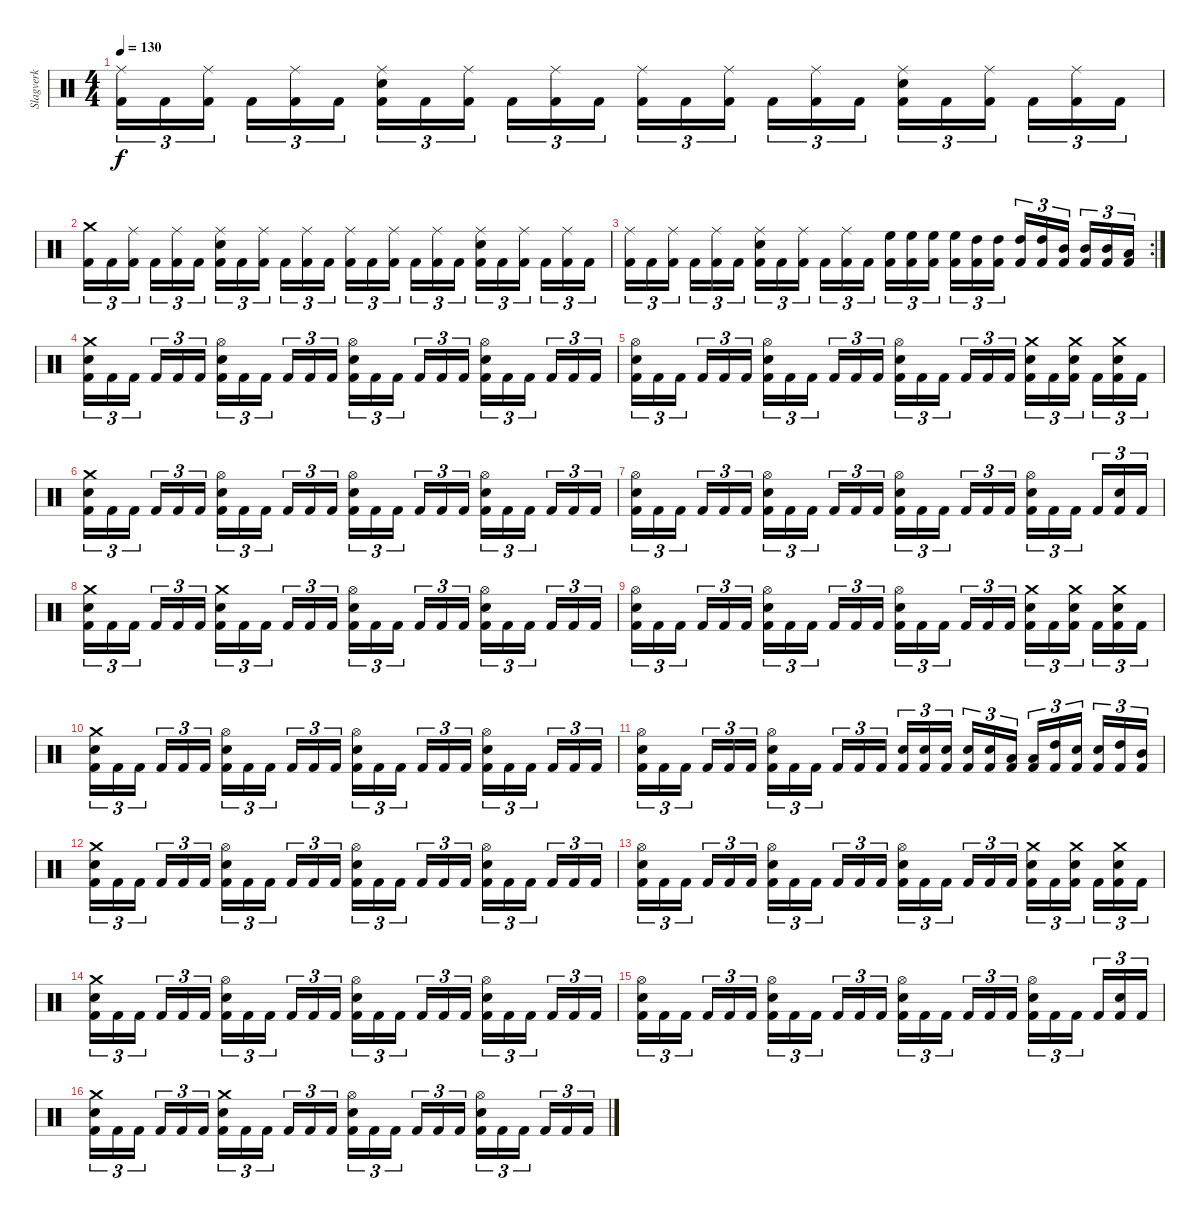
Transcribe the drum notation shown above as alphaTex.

\track ("Slagverk" "Slagverk") {instrument percussion}
\staff {score}
\articulation defaults
\ts (4 4)
\tempo 130
\clef neutral
\ks c
("Kick (hit) 2" "Ride (middle)").16{tu (3 2) dy f} "Kick (hit) 2".16{tu (3 2)} ("Kick (hit) 2" "Ride (middle)").16{tu (3 2)} "Kick (hit) 2".16{tu (3 2)} ("Kick (hit) 2" "Ride (middle)").16{tu (3 2)} "Kick (hit) 2".16{tu (3 2)} ("Kick (hit) 2" "Electric Snare (hit)" "Ride (middle)").16{tu (3 2)} "Kick (hit) 2".16{tu (3 2)} ("Kick (hit) 2" "Ride (middle)").16{tu (3 2)} "Kick (hit) 2".16{tu (3 2)} ("Kick (hit) 2" "Ride (middle)").16{tu (3 2)} "Kick (hit) 2".16{tu (3 2)} ("Kick (hit) 2" "Ride (middle)").16{tu (3 2)} "Kick (hit) 2".16{tu (3 2)} ("Kick (hit) 2" "Ride (middle)").16{tu (3 2)} "Kick (hit) 2".16{tu (3 2)} ("Kick (hit) 2" "Ride (middle)").16{tu (3 2)} "Kick (hit) 2".16{tu (3 2)} ("Kick (hit) 2" "Electric Snare (hit)" "Ride (middle)").16{tu (3 2)} "Kick (hit) 2".16{tu (3 2)} ("Kick (hit) 2" "Ride (middle)").16{tu (3 2)} "Kick (hit) 2".16{tu (3 2)} ("Kick (hit) 2" "Ride (middle)").16{tu (3 2)} "Kick (hit) 2".16{tu (3 2)} |
("Kick (hit) 2" "Crash medium (hit)").16{tu (3 2)} "Kick (hit) 2".16{tu (3 2)} ("Kick (hit) 2" "Ride (middle)").16{tu (3 2)} "Kick (hit) 2".16{tu (3 2)} ("Kick (hit) 2" "Ride (middle)").16{tu (3 2)} "Kick (hit) 2".16{tu (3 2)} ("Kick (hit) 2" "Electric Snare (hit)" "Ride (middle)").16{tu (3 2)} "Kick (hit) 2".16{tu (3 2)} ("Kick (hit) 2" "Ride (middle)").16{tu (3 2)} "Kick (hit) 2".16{tu (3 2)} ("Kick (hit) 2" "Ride (middle)").16{tu (3 2)} "Kick (hit) 2".16{tu (3 2)} ("Kick (hit) 2" "Ride (middle)").16{tu (3 2)} "Kick (hit) 2".16{tu (3 2)} ("Kick (hit) 2" "Ride (middle)").16{tu (3 2)} "Kick (hit) 2".16{tu (3 2)} ("Kick (hit) 2" "Ride (middle)").16{tu (3 2)} "Kick (hit) 2".16{tu (3 2)} ("Kick (hit) 2" "Electric Snare (hit)" "Ride (middle)").16{tu (3 2)} "Kick (hit) 2".16{tu (3 2)} ("Kick (hit) 2" "Ride (middle)").16{tu (3 2)} "Kick (hit) 2".16{tu (3 2)} ("Kick (hit) 2" "Ride (middle)").16{tu (3 2)} "Kick (hit) 2".16{tu (3 2)} |
\rc 2
("Kick (hit) 2" "Ride (middle)").16{tu (3 2)} "Kick (hit) 2".16{tu (3 2)} ("Kick (hit) 2" "Ride (middle)").16{tu (3 2)} "Kick (hit) 2".16{tu (3 2)} ("Kick (hit) 2" "Ride (middle)").16{tu (3 2)} "Kick (hit) 2".16{tu (3 2)} ("Kick (hit) 2" "Electric Snare (hit)" "Ride (middle)").16{tu (3 2)} "Kick (hit) 2".16{tu (3 2)} ("Kick (hit) 2" "Ride (middle)").16{tu (3 2)} "Kick (hit) 2".16{tu (3 2)} ("Kick (hit) 2" "Ride (middle)").16{tu (3 2)} "Kick (hit) 2".16{tu (3 2)} ("Kick (hit) 2" "High Floor Tom (hit)").16{tu (3 2)} ("Kick (hit) 2" "High Floor Tom (hit)").16{tu (3 2)} ("Kick (hit) 2" "High Floor Tom (hit)").16{tu (3 2)} ("Kick (hit) 2" "High Floor Tom (hit)").16{tu (3 2)} ("Kick (hit) 2" "High Tom (hit)").16{tu (3 2)} ("Kick (hit) 2" "High Tom (hit)").16{tu (3 2)} ("Kick (hit) 2" "High Tom (hit)").16{tu (3 2)} ("Kick (hit) 2" "High Tom (hit)").16{tu (3 2)} ("Kick (hit) 2" "Mid Tom (hit)").16{tu (3 2)} ("Kick (hit) 2" "Mid Tom (hit)").16{tu (3 2)} ("Kick (hit) 2" "Mid Tom (hit)").16{tu (3 2)} ("Kick (hit) 2" "Low Tom (hit)").16{tu (3 2)} |
("Kick (hit) 2" "Electric Snare (hit)" "Crash medium (hit)").16{tu (3 2)} "Kick (hit) 2".16{tu (3 2)} "Kick (hit) 2".16{tu (3 2)} "Kick (hit) 2".16{tu (3 2)} "Kick (hit) 2".16{tu (3 2)} "Kick (hit) 2".16{tu (3 2)} ("Kick (hit) 2" "Electric Snare (hit)" "Hi-Hat (open)").16{tu (3 2)} "Kick (hit) 2".16{tu (3 2)} "Kick (hit) 2".16{tu (3 2)} "Kick (hit) 2".16{tu (3 2)} "Kick (hit) 2".16{tu (3 2)} "Kick (hit) 2".16{tu (3 2)} ("Kick (hit) 2" "Electric Snare (hit)" "Hi-Hat (open)").16{tu (3 2)} "Kick (hit) 2".16{tu (3 2)} "Kick (hit) 2".16{tu (3 2)} "Kick (hit) 2".16{tu (3 2)} "Kick (hit) 2".16{tu (3 2)} "Kick (hit) 2".16{tu (3 2)} ("Kick (hit) 2" "Electric Snare (hit)" "Hi-Hat (open)").16{tu (3 2)} "Kick (hit) 2".16{tu (3 2)} "Kick (hit) 2".16{tu (3 2)} "Kick (hit) 2".16{tu (3 2)} "Kick (hit) 2".16{tu (3 2)} "Kick (hit) 2".16{tu (3 2)} |
("Kick (hit) 2" "Electric Snare (hit)" "Hi-Hat (open)").16{tu (3 2)} "Kick (hit) 2".16{tu (3 2)} "Kick (hit) 2".16{tu (3 2)} "Kick (hit) 2".16{tu (3 2)} "Kick (hit) 2".16{tu (3 2)} "Kick (hit) 2".16{tu (3 2)} ("Kick (hit) 2" "Electric Snare (hit)" "Hi-Hat (open)").16{tu (3 2)} "Kick (hit) 2".16{tu (3 2)} "Kick (hit) 2".16{tu (3 2)} "Kick (hit) 2".16{tu (3 2)} "Kick (hit) 2".16{tu (3 2)} "Kick (hit) 2".16{tu (3 2)} ("Kick (hit) 2" "Electric Snare (hit)" "Hi-Hat (open)").16{tu (3 2)} "Kick (hit) 2".16{tu (3 2)} "Kick (hit) 2".16{tu (3 2)} "Kick (hit) 2".16{tu (3 2)} "Kick (hit) 2".16{tu (3 2)} "Kick (hit) 2".16{tu (3 2)} ("Kick (hit) 2" "Electric Snare (hit)" "Crash medium (hit)").16{tu (3 2)} "Kick (hit) 2".16{tu (3 2)} ("Kick (hit) 2" "Electric Snare (hit)" "Crash medium (hit)").16{tu (3 2)} "Kick (hit) 2".16{tu (3 2)} ("Kick (hit) 2" "Electric Snare (hit)" "Crash medium (hit)").16{tu (3 2)} "Kick (hit) 2".16{tu (3 2)} |
("Kick (hit) 2" "Electric Snare (hit)" "Crash medium (hit)").16{tu (3 2)} "Kick (hit) 2".16{tu (3 2)} "Kick (hit) 2".16{tu (3 2)} "Kick (hit) 2".16{tu (3 2)} "Kick (hit) 2".16{tu (3 2)} "Kick (hit) 2".16{tu (3 2)} ("Kick (hit) 2" "Electric Snare (hit)" "Hi-Hat (open)").16{tu (3 2)} "Kick (hit) 2".16{tu (3 2)} "Kick (hit) 2".16{tu (3 2)} "Kick (hit) 2".16{tu (3 2)} "Kick (hit) 2".16{tu (3 2)} "Kick (hit) 2".16{tu (3 2)} ("Kick (hit) 2" "Electric Snare (hit)" "Hi-Hat (open)").16{tu (3 2)} "Kick (hit) 2".16{tu (3 2)} "Kick (hit) 2".16{tu (3 2)} "Kick (hit) 2".16{tu (3 2)} "Kick (hit) 2".16{tu (3 2)} "Kick (hit) 2".16{tu (3 2)} ("Kick (hit) 2" "Electric Snare (hit)" "Hi-Hat (open)").16{tu (3 2)} "Kick (hit) 2".16{tu (3 2)} "Kick (hit) 2".16{tu (3 2)} "Kick (hit) 2".16{tu (3 2)} "Kick (hit) 2".16{tu (3 2)} "Kick (hit) 2".16{tu (3 2)} |
("Kick (hit) 2" "Electric Snare (hit)" "Hi-Hat (open)").16{tu (3 2)} "Kick (hit) 2".16{tu (3 2)} "Kick (hit) 2".16{tu (3 2)} "Kick (hit) 2".16{tu (3 2)} "Kick (hit) 2".16{tu (3 2)} "Kick (hit) 2".16{tu (3 2)} ("Kick (hit) 2" "Electric Snare (hit)" "Hi-Hat (open)").16{tu (3 2)} "Kick (hit) 2".16{tu (3 2)} "Kick (hit) 2".16{tu (3 2)} "Kick (hit) 2".16{tu (3 2)} "Kick (hit) 2".16{tu (3 2)} "Kick (hit) 2".16{tu (3 2)} ("Kick (hit) 2" "Electric Snare (hit)" "Hi-Hat (open)").16{tu (3 2)} "Kick (hit) 2".16{tu (3 2)} "Kick (hit) 2".16{tu (3 2)} "Kick (hit) 2".16{tu (3 2)} "Kick (hit) 2".16{tu (3 2)} "Kick (hit) 2".16{tu (3 2)} ("Kick (hit) 2" "Electric Snare (hit)" "Hi-Hat (open)").16{tu (3 2)} "Kick (hit) 2".16{tu (3 2)} "Kick (hit) 2".16{tu (3 2)} "Kick (hit) 2".16{tu (3 2)} ("Kick (hit) 2" "Electric Snare (hit)").16{tu (3 2)} "Kick (hit) 2".16{tu (3 2)} |
("Kick (hit) 2" "Electric Snare (hit)" "Crash medium (hit)").16{tu (3 2)} "Kick (hit) 2".16{tu (3 2)} "Kick (hit) 2".16{tu (3 2)} "Kick (hit) 2".16{tu (3 2)} "Kick (hit) 2".16{tu (3 2)} "Kick (hit) 2".16{tu (3 2)} ("Kick (hit) 2" "Electric Snare (hit)" "Crash medium (hit)").16{tu (3 2)} "Kick (hit) 2".16{tu (3 2)} "Kick (hit) 2".16{tu (3 2)} "Kick (hit) 2".16{tu (3 2)} "Kick (hit) 2".16{tu (3 2)} "Kick (hit) 2".16{tu (3 2)} ("Kick (hit) 2" "Electric Snare (hit)" "Hi-Hat (open)").16{tu (3 2)} "Kick (hit) 2".16{tu (3 2)} "Kick (hit) 2".16{tu (3 2)} "Kick (hit) 2".16{tu (3 2)} "Kick (hit) 2".16{tu (3 2)} "Kick (hit) 2".16{tu (3 2)} ("Kick (hit) 2" "Electric Snare (hit)" "Hi-Hat (open)").16{tu (3 2)} "Kick (hit) 2".16{tu (3 2)} "Kick (hit) 2".16{tu (3 2)} "Kick (hit) 2".16{tu (3 2)} "Kick (hit) 2".16{tu (3 2)} "Kick (hit) 2".16{tu (3 2)} |
("Kick (hit) 2" "Electric Snare (hit)" "Hi-Hat (open)").16{tu (3 2)} "Kick (hit) 2".16{tu (3 2)} "Kick (hit) 2".16{tu (3 2)} "Kick (hit) 2".16{tu (3 2)} "Kick (hit) 2".16{tu (3 2)} "Kick (hit) 2".16{tu (3 2)} ("Kick (hit) 2" "Electric Snare (hit)" "Hi-Hat (open)").16{tu (3 2)} "Kick (hit) 2".16{tu (3 2)} "Kick (hit) 2".16{tu (3 2)} "Kick (hit) 2".16{tu (3 2)} "Kick (hit) 2".16{tu (3 2)} "Kick (hit) 2".16{tu (3 2)} ("Kick (hit) 2" "Electric Snare (hit)" "Hi-Hat (open)").16{tu (3 2)} "Kick (hit) 2".16{tu (3 2)} "Kick (hit) 2".16{tu (3 2)} "Kick (hit) 2".16{tu (3 2)} "Kick (hit) 2".16{tu (3 2)} "Kick (hit) 2".16{tu (3 2)} ("Kick (hit) 2" "Electric Snare (hit)" "Crash medium (hit)").16{tu (3 2)} "Kick (hit) 2".16{tu (3 2)} ("Kick (hit) 2" "Electric Snare (hit)" "Crash medium (hit)").16{tu (3 2)} "Kick (hit) 2".16{tu (3 2)} ("Kick (hit) 2" "Electric Snare (hit)" "Crash medium (hit)").16{tu (3 2)} "Kick (hit) 2".16{tu (3 2)} |
("Kick (hit) 2" "Electric Snare (hit)" "Crash medium (hit)").16{tu (3 2)} "Kick (hit) 2".16{tu (3 2)} "Kick (hit) 2".16{tu (3 2)} "Kick (hit) 2".16{tu (3 2)} "Kick (hit) 2".16{tu (3 2)} "Kick (hit) 2".16{tu (3 2)} ("Kick (hit) 2" "Electric Snare (hit)" "Hi-Hat (open)").16{tu (3 2)} "Kick (hit) 2".16{tu (3 2)} "Kick (hit) 2".16{tu (3 2)} "Kick (hit) 2".16{tu (3 2)} "Kick (hit) 2".16{tu (3 2)} "Kick (hit) 2".16{tu (3 2)} ("Kick (hit) 2" "Electric Snare (hit)" "Hi-Hat (open)").16{tu (3 2)} "Kick (hit) 2".16{tu (3 2)} "Kick (hit) 2".16{tu (3 2)} "Kick (hit) 2".16{tu (3 2)} "Kick (hit) 2".16{tu (3 2)} "Kick (hit) 2".16{tu (3 2)} ("Kick (hit) 2" "Electric Snare (hit)" "Hi-Hat (open)").16{tu (3 2)} "Kick (hit) 2".16{tu (3 2)} "Kick (hit) 2".16{tu (3 2)} "Kick (hit) 2".16{tu (3 2)} "Kick (hit) 2".16{tu (3 2)} "Kick (hit) 2".16{tu (3 2)} |
("Kick (hit) 2" "Electric Snare (hit)" "Hi-Hat (open)").16{tu (3 2)} "Kick (hit) 2".16{tu (3 2)} "Kick (hit) 2".16{tu (3 2)} "Kick (hit) 2".16{tu (3 2)} "Kick (hit) 2".16{tu (3 2)} "Kick (hit) 2".16{tu (3 2)} ("Kick (hit) 2" "Electric Snare (hit)" "Hi-Hat (open)").16{tu (3 2)} "Kick (hit) 2".16{tu (3 2)} "Kick (hit) 2".16{tu (3 2)} "Kick (hit) 2".16{tu (3 2)} "Kick (hit) 2".16{tu (3 2)} "Kick (hit) 2".16{tu (3 2)} ("Kick (hit) 2" "Electric Snare (hit)").16{tu (3 2)} ("Kick (hit) 2" "Electric Snare (hit)").16{tu (3 2)} ("Kick (hit) 2" "Electric Snare (hit)").16{tu (3 2)} ("Kick (hit) 2" "Electric Snare (hit)").16{tu (3 2)} ("Kick (hit) 2" "Electric Snare (hit)").16{tu (3 2)} ("Kick (hit) 2" "Low Tom (hit)").16{tu (3 2)} ("Kick (hit) 2" "Low Tom (hit)").16{tu (3 2)} ("Kick (hit) 2" "High Tom (hit)").16{tu (3 2)} ("Kick (hit) 2" "Electric Snare (hit)").16{tu (3 2)} ("Kick (hit) 2" "Electric Snare (hit)").16{tu (3 2)} ("Kick (hit) 2" "High Tom (hit)").16{tu (3 2)} ("Kick (hit) 2" "Mid Tom (hit)").16{tu (3 2)} |
("Kick (hit) 2" "Electric Snare (hit)" "Crash medium (hit)").16{tu (3 2)} "Kick (hit) 2".16{tu (3 2)} "Kick (hit) 2".16{tu (3 2)} "Kick (hit) 2".16{tu (3 2)} "Kick (hit) 2".16{tu (3 2)} "Kick (hit) 2".16{tu (3 2)} ("Kick (hit) 2" "Electric Snare (hit)" "Hi-Hat (open)").16{tu (3 2)} "Kick (hit) 2".16{tu (3 2)} "Kick (hit) 2".16{tu (3 2)} "Kick (hit) 2".16{tu (3 2)} "Kick (hit) 2".16{tu (3 2)} "Kick (hit) 2".16{tu (3 2)} ("Kick (hit) 2" "Electric Snare (hit)" "Hi-Hat (open)").16{tu (3 2)} "Kick (hit) 2".16{tu (3 2)} "Kick (hit) 2".16{tu (3 2)} "Kick (hit) 2".16{tu (3 2)} "Kick (hit) 2".16{tu (3 2)} "Kick (hit) 2".16{tu (3 2)} ("Kick (hit) 2" "Electric Snare (hit)" "Hi-Hat (open)").16{tu (3 2)} "Kick (hit) 2".16{tu (3 2)} "Kick (hit) 2".16{tu (3 2)} "Kick (hit) 2".16{tu (3 2)} "Kick (hit) 2".16{tu (3 2)} "Kick (hit) 2".16{tu (3 2)} |
("Kick (hit) 2" "Electric Snare (hit)" "Hi-Hat (open)").16{tu (3 2)} "Kick (hit) 2".16{tu (3 2)} "Kick (hit) 2".16{tu (3 2)} "Kick (hit) 2".16{tu (3 2)} "Kick (hit) 2".16{tu (3 2)} "Kick (hit) 2".16{tu (3 2)} ("Kick (hit) 2" "Electric Snare (hit)" "Hi-Hat (open)").16{tu (3 2)} "Kick (hit) 2".16{tu (3 2)} "Kick (hit) 2".16{tu (3 2)} "Kick (hit) 2".16{tu (3 2)} "Kick (hit) 2".16{tu (3 2)} "Kick (hit) 2".16{tu (3 2)} ("Kick (hit) 2" "Electric Snare (hit)" "Hi-Hat (open)").16{tu (3 2)} "Kick (hit) 2".16{tu (3 2)} "Kick (hit) 2".16{tu (3 2)} "Kick (hit) 2".16{tu (3 2)} "Kick (hit) 2".16{tu (3 2)} "Kick (hit) 2".16{tu (3 2)} ("Kick (hit) 2" "Electric Snare (hit)" "Crash medium (hit)").16{tu (3 2)} "Kick (hit) 2".16{tu (3 2)} ("Kick (hit) 2" "Electric Snare (hit)" "Crash medium (hit)").16{tu (3 2)} "Kick (hit) 2".16{tu (3 2)} ("Kick (hit) 2" "Electric Snare (hit)" "Crash medium (hit)").16{tu (3 2)} "Kick (hit) 2".16{tu (3 2)} |
("Kick (hit) 2" "Electric Snare (hit)" "Crash medium (hit)").16{tu (3 2)} "Kick (hit) 2".16{tu (3 2)} "Kick (hit) 2".16{tu (3 2)} "Kick (hit) 2".16{tu (3 2)} "Kick (hit) 2".16{tu (3 2)} "Kick (hit) 2".16{tu (3 2)} ("Kick (hit) 2" "Electric Snare (hit)" "Hi-Hat (open)").16{tu (3 2)} "Kick (hit) 2".16{tu (3 2)} "Kick (hit) 2".16{tu (3 2)} "Kick (hit) 2".16{tu (3 2)} "Kick (hit) 2".16{tu (3 2)} "Kick (hit) 2".16{tu (3 2)} ("Kick (hit) 2" "Electric Snare (hit)" "Hi-Hat (open)").16{tu (3 2)} "Kick (hit) 2".16{tu (3 2)} "Kick (hit) 2".16{tu (3 2)} "Kick (hit) 2".16{tu (3 2)} "Kick (hit) 2".16{tu (3 2)} "Kick (hit) 2".16{tu (3 2)} ("Kick (hit) 2" "Electric Snare (hit)" "Hi-Hat (open)").16{tu (3 2)} "Kick (hit) 2".16{tu (3 2)} "Kick (hit) 2".16{tu (3 2)} "Kick (hit) 2".16{tu (3 2)} "Kick (hit) 2".16{tu (3 2)} "Kick (hit) 2".16{tu (3 2)} |
("Kick (hit) 2" "Electric Snare (hit)" "Hi-Hat (open)").16{tu (3 2)} "Kick (hit) 2".16{tu (3 2)} "Kick (hit) 2".16{tu (3 2)} "Kick (hit) 2".16{tu (3 2)} "Kick (hit) 2".16{tu (3 2)} "Kick (hit) 2".16{tu (3 2)} ("Kick (hit) 2" "Electric Snare (hit)" "Hi-Hat (open)").16{tu (3 2)} "Kick (hit) 2".16{tu (3 2)} "Kick (hit) 2".16{tu (3 2)} "Kick (hit) 2".16{tu (3 2)} "Kick (hit) 2".16{tu (3 2)} "Kick (hit) 2".16{tu (3 2)} ("Kick (hit) 2" "Electric Snare (hit)" "Hi-Hat (open)").16{tu (3 2)} "Kick (hit) 2".16{tu (3 2)} "Kick (hit) 2".16{tu (3 2)} "Kick (hit) 2".16{tu (3 2)} "Kick (hit) 2".16{tu (3 2)} "Kick (hit) 2".16{tu (3 2)} ("Kick (hit) 2" "Electric Snare (hit)" "Hi-Hat (open)").16{tu (3 2)} "Kick (hit) 2".16{tu (3 2)} "Kick (hit) 2".16{tu (3 2)} "Kick (hit) 2".16{tu (3 2)} ("Kick (hit) 2" "Electric Snare (hit)").16{tu (3 2)} "Kick (hit) 2".16{tu (3 2)} |
("Kick (hit) 2" "Electric Snare (hit)" "Crash medium (hit)").16{tu (3 2)} "Kick (hit) 2".16{tu (3 2)} "Kick (hit) 2".16{tu (3 2)} "Kick (hit) 2".16{tu (3 2)} "Kick (hit) 2".16{tu (3 2)} "Kick (hit) 2".16{tu (3 2)} ("Kick (hit) 2" "Electric Snare (hit)" "Crash medium (hit)").16{tu (3 2)} "Kick (hit) 2".16{tu (3 2)} "Kick (hit) 2".16{tu (3 2)} "Kick (hit) 2".16{tu (3 2)} "Kick (hit) 2".16{tu (3 2)} "Kick (hit) 2".16{tu (3 2)} ("Kick (hit) 2" "Electric Snare (hit)" "Hi-Hat (open)").16{tu (3 2)} "Kick (hit) 2".16{tu (3 2)} "Kick (hit) 2".16{tu (3 2)} "Kick (hit) 2".16{tu (3 2)} "Kick (hit) 2".16{tu (3 2)} "Kick (hit) 2".16{tu (3 2)} ("Kick (hit) 2" "Electric Snare (hit)" "Hi-Hat (open)").16{tu (3 2)} "Kick (hit) 2".16{tu (3 2)} "Kick (hit) 2".16{tu (3 2)} "Kick (hit) 2".16{tu (3 2)} "Kick (hit) 2".16{tu (3 2)} "Kick (hit) 2".16{tu (3 2)}
